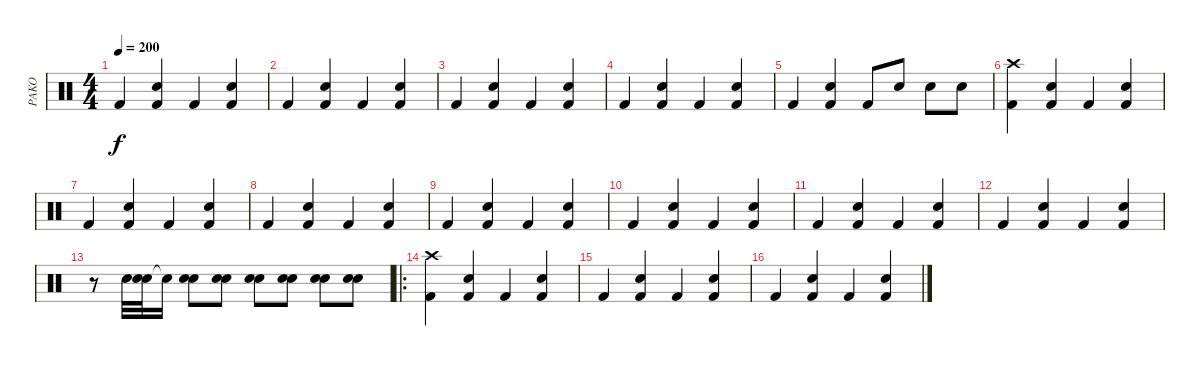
\track ("PAKO" "PAKO") {instrument percussion}
\staff {score}
\articulation defaults
\ts (4 4)
\tempo 200
\clef neutral
\ks c "Kick (hit) 2".4{dy f}
("Electric Snare (hit)" "Kick (hit) 2").4 "Kick (hit) 2".4 ("Electric Snare (hit)" "Kick (hit) 2").4 |
"Kick (hit) 2".4 ("Electric Snare (hit)" "Kick (hit) 2").4 "Kick (hit) 2".4 ("Electric Snare (hit)" "Kick (hit) 2").4 |
"Kick (hit) 2".4 ("Electric Snare (hit)" "Kick (hit) 2").4 "Kick (hit) 2".4 ("Electric Snare (hit)" "Kick (hit) 2").4 |
"Kick (hit) 2".4 ("Electric Snare (hit)" "Kick (hit) 2").4 "Kick (hit) 2".4 ("Electric Snare (hit)" "Kick (hit) 2").4 |
"Kick (hit) 2".4 ("Electric Snare (hit)" "Kick (hit) 2").4 "Kick (hit) 2".8 "Electric Snare (hit)".8 "Electric Snare (hit)".8 "Electric Snare (hit)".8 |
("Kick (hit) 2" "Crash high (hit)").4 ("Electric Snare (hit)" "Kick (hit) 2").4 "Kick (hit) 2".4 ("Electric Snare (hit)" "Kick (hit) 2").4 |
"Kick (hit) 2".4 ("Electric Snare (hit)" "Kick (hit) 2").4 "Kick (hit) 2".4 ("Electric Snare (hit)" "Kick (hit) 2").4 |
"Kick (hit) 2".4 ("Electric Snare (hit)" "Kick (hit) 2").4 "Kick (hit) 2".4 ("Electric Snare (hit)" "Kick (hit) 2").4 |
"Kick (hit) 2".4 ("Electric Snare (hit)" "Kick (hit) 2").4 "Kick (hit) 2".4 ("Electric Snare (hit)" "Kick (hit) 2").4 |
"Kick (hit) 2".4 ("Electric Snare (hit)" "Kick (hit) 2").4 "Kick (hit) 2".4 ("Electric Snare (hit)" "Kick (hit) 2").4 |
"Kick (hit) 2".4 ("Electric Snare (hit)" "Kick (hit) 2").4 "Kick (hit) 2".4 ("Electric Snare (hit)" "Kick (hit) 2").4 |
"Kick (hit) 2".4 ("Electric Snare (hit)" "Kick (hit) 2").4 "Kick (hit) 2".4 ("Electric Snare (hit)" "Kick (hit) 2").4 |
r.8 "Snare (hit) 2".32 ("Electric Snare (hit)" "Snare (hit) 2").32 "Snare (hit)"{t}.16 ("Electric Snare (hit)" "Snare (hit) 2").8 ("Electric Snare (hit)" "Snare (hit) 2").8 ("Electric Snare (hit)" "Snare (hit) 2").8 ("Electric Snare (hit)" "Snare (hit) 2").8 ("Electric Snare (hit)" "Snare (hit) 2").8 ("Electric Snare (hit)" "Snare (hit) 2").8 |
\ro
("Crash high (hit)" "Kick (hit) 2").4 ("Electric Snare (hit)" "Kick (hit) 2").4 "Kick (hit) 2".4 ("Electric Snare (hit)" "Kick (hit) 2").4 |
"Kick (hit) 2".4 ("Electric Snare (hit)" "Kick (hit) 2").4 "Kick (hit) 2".4 ("Electric Snare (hit)" "Kick (hit) 2").4 |
"Kick (hit) 2".4 ("Electric Snare (hit)" "Kick (hit) 2").4 "Kick (hit) 2".4 ("Electric Snare (hit)" "Kick (hit) 2").4
